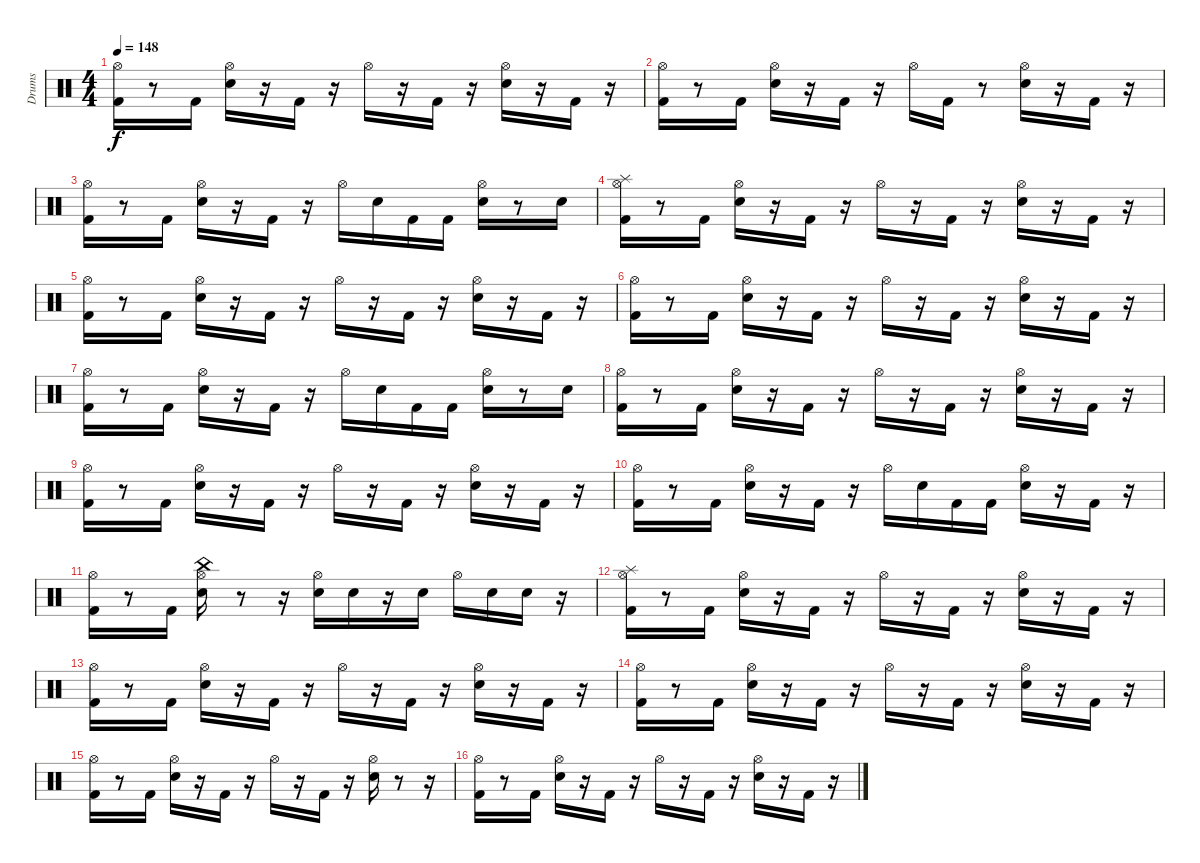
\track ("Drums" "Drums") {instrument percussion}
\staff {score}
\articulation defaults
\ts (4 4)
\tempo 148
\clef neutral
\ks c
("Hi-Hat (open)" "Kick (hit) 2").16{dy f} r.8 "Kick (hit) 2".16 ("Hi-Hat (open)" "Snare (hit) 2").16 r.16 "Kick (hit) 2".16 r.16 "Hi-Hat (open)".16 r.16 "Kick (hit) 2".16 r.16 ("Hi-Hat (open)" "Snare (hit) 2").16 r.16 "Kick (hit) 2".16 r.16 |
("Hi-Hat (open)" "Kick (hit) 2").16 r.8 "Kick (hit) 2".16 ("Hi-Hat (open)" "Snare (hit) 2").16 r.16 "Kick (hit) 2".16 r.16 "Hi-Hat (open)".16 "Kick (hit) 2".16 r.8 ("Hi-Hat (open)" "Snare (hit) 2").16 r.16 "Kick (hit) 2".16 r.16 |
("Hi-Hat (open)" "Kick (hit) 2").16 r.8 "Kick (hit) 2".16 ("Hi-Hat (open)" "Snare (hit) 2").16 r.16 "Kick (hit) 2".16 r.16 "Hi-Hat (open)".16 "Snare (hit) 2".16 "Kick (hit) 2".16 "Kick (hit) 2".16 ("Hi-Hat (open)" "Snare (hit) 2").16 r.8 "Snare (hit) 2".16 |
("Splash (hit)" "Hi-Hat (open)" "Kick (hit) 2").16 r.8 "Kick (hit) 2".16 ("Hi-Hat (open)" "Snare (hit) 2").16 r.16 "Kick (hit) 2".16 r.16 "Hi-Hat (open)".16 r.16 "Kick (hit) 2".16 r.16 ("Hi-Hat (open)" "Snare (hit) 2").16 r.16 "Kick (hit) 2".16 r.16 |
("Hi-Hat (open)" "Kick (hit) 2").16 r.8 "Kick (hit) 2".16 ("Hi-Hat (open)" "Snare (hit) 2").16 r.16 "Kick (hit) 2".16 r.16 "Hi-Hat (open)".16 r.16 "Kick (hit) 2".16 r.16 ("Hi-Hat (open)" "Snare (hit) 2").16 r.16 "Kick (hit) 2".16 r.16 |
("Hi-Hat (open)" "Kick (hit) 2").16 r.8 "Kick (hit) 2".16 ("Hi-Hat (open)" "Snare (hit) 2").16 r.16 "Kick (hit) 2".16 r.16 "Hi-Hat (open)".16 r.16 "Kick (hit) 2".16 r.16 ("Hi-Hat (open)" "Snare (hit) 2").16 r.16 "Kick (hit) 2".16 r.16 |
("Hi-Hat (open)" "Kick (hit) 2").16 r.8 "Kick (hit) 2".16 ("Hi-Hat (open)" "Snare (hit) 2").16 r.16 "Kick (hit) 2".16 r.16 "Hi-Hat (open)".16 "Snare (hit) 2".16 "Kick (hit) 2".16 "Kick (hit) 2".16 ("Hi-Hat (open)" "Snare (hit) 2").16 r.8 "Snare (hit) 2".16 |
("Hi-Hat (open)" "Kick (hit) 2").16 r.8 "Kick (hit) 2".16 ("Hi-Hat (open)" "Snare (hit) 2").16 r.16 "Kick (hit) 2".16 r.16 "Hi-Hat (open)".16 r.16 "Kick (hit) 2".16 r.16 ("Hi-Hat (open)" "Snare (hit) 2").16 r.16 "Kick (hit) 2".16 r.16 |
("Hi-Hat (open)" "Kick (hit) 2").16 r.8 "Kick (hit) 2".16 ("Hi-Hat (open)" "Snare (hit) 2").16 r.16 "Kick (hit) 2".16 r.16 "Hi-Hat (open)".16 r.16 "Kick (hit) 2".16 r.16 ("Hi-Hat (open)" "Snare (hit) 2").16 r.16 "Kick (hit) 2".16 r.16 |
("Hi-Hat (open)" "Kick (hit) 2").16 r.8 "Kick (hit) 2".16 ("Hi-Hat (open)" "Snare (hit) 2").16 r.16 "Kick (hit) 2".16 r.16 "Hi-Hat (open)".16 "Snare (hit) 2".16 "Kick (hit) 2".16 "Kick (hit) 2".16 ("Hi-Hat (open)" "Snare (hit) 2").16 r.16 "Kick (hit) 2".16 r.16 |
("Hi-Hat (open)" "Kick (hit) 2").16 r.8 "Kick (hit) 2".16 ("Hi-Hat (open)" "China (hit)" "Snare (hit) 2").16 r.8 r.16 ("Hi-Hat (open)" "Snare (hit) 2").16 "Snare (hit) 2".16 r.16 "Snare (hit) 2".16 "Hi-Hat (open)".16 "Snare (hit) 2".16 "Snare (hit) 2".16 r.16 |
("Splash (hit)" "Hi-Hat (open)" "Kick (hit) 2").16 r.8 "Kick (hit) 2".16 ("Hi-Hat (open)" "Snare (hit) 2").16 r.16 "Kick (hit) 2".16 r.16 "Hi-Hat (open)".16 r.16 "Kick (hit) 2".16 r.16 ("Hi-Hat (open)" "Snare (hit) 2").16 r.16 "Kick (hit) 2".16 r.16 |
("Hi-Hat (open)" "Kick (hit) 2").16 r.8 "Kick (hit) 2".16 ("Hi-Hat (open)" "Snare (hit) 2").16 r.16 "Kick (hit) 2".16 r.16 "Hi-Hat (open)".16 r.16 "Kick (hit) 2".16 r.16 ("Hi-Hat (open)" "Snare (hit) 2").16 r.16 "Kick (hit) 2".16 r.16 |
("Hi-Hat (open)" "Kick (hit) 2").16 r.8 "Kick (hit) 2".16 ("Hi-Hat (open)" "Snare (hit) 2").16 r.16 "Kick (hit) 2".16 r.16 "Hi-Hat (open)".16 r.16 "Kick (hit) 2".16 r.16 ("Hi-Hat (open)" "Snare (hit) 2").16 r.16 "Kick (hit) 2".16 r.16 |
("Hi-Hat (open)" "Kick (hit) 2").16 r.8 "Kick (hit) 2".16 ("Hi-Hat (open)" "Snare (hit) 2").16 r.16 "Kick (hit) 2".16 r.16 "Hi-Hat (open)".16 r.16 "Kick (hit) 2".16 r.16 ("Hi-Hat (open)" "Snare (hit) 2").16 r.8 r.16 |
("Hi-Hat (open)" "Kick (hit) 2").16 r.8 "Kick (hit) 2".16 ("Hi-Hat (open)" "Snare (hit) 2").16 r.16 "Kick (hit) 2".16 r.16 "Hi-Hat (open)".16 r.16 "Kick (hit) 2".16 r.16 ("Hi-Hat (open)" "Snare (hit) 2").16 r.16 "Kick (hit) 2".16 r.16
